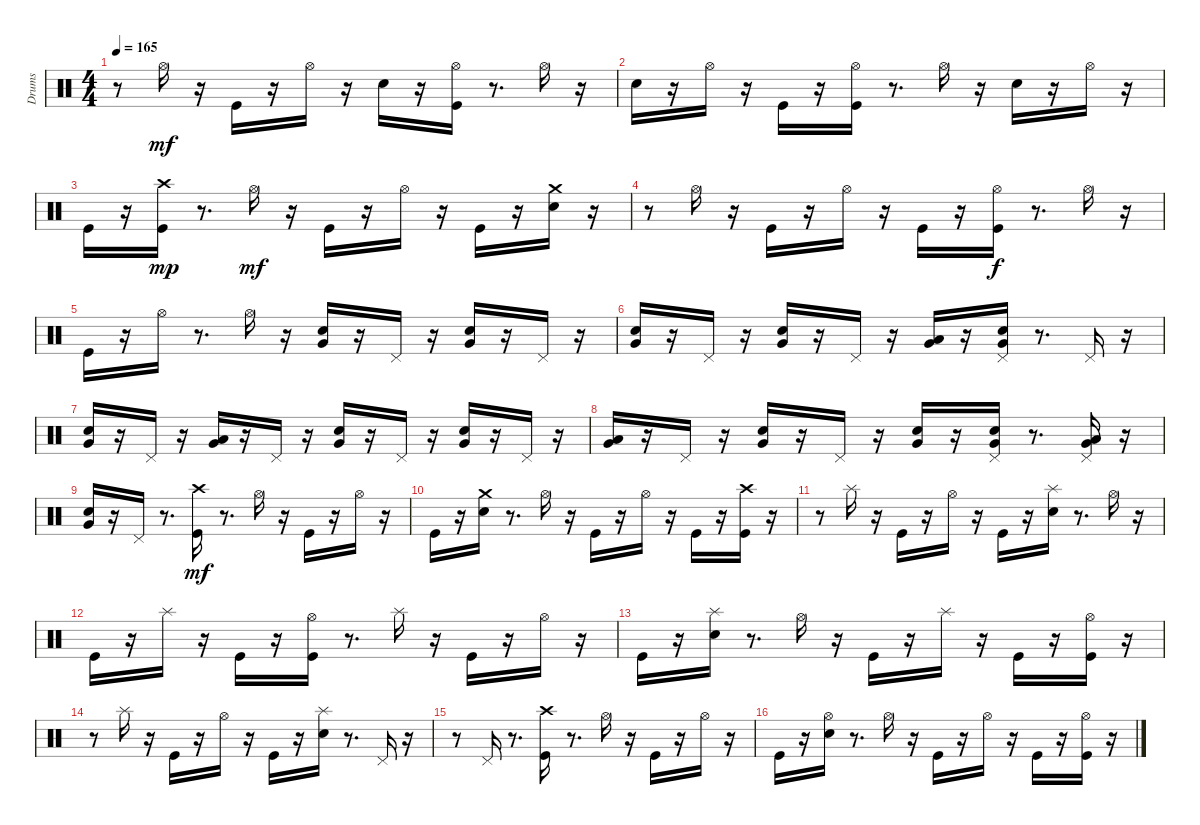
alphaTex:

\track ("Drums" "Drums") {instrument percussion}
\staff {score}
\articulation defaults
\ts (4 4)
\tempo 165
\clef neutral
\ks c
r.8{dy mf} "Hi-Hat (open)".16 r.16 "Kick (hit)".16 r.16 "Hi-Hat (open)".16 r.16 "Electric Snare (hit)".16 r.16 ("Kick (hit)" "Hi-Hat (open)").16 r.8{d} "Hi-Hat (open)".16 r.16 |
"Electric Snare (hit)".16 r.16 "Hi-Hat (open)".16 r.16 "Kick (hit)".16 r.16 ("Hi-Hat (open)" "Kick (hit)").16 r.8{d} "Hi-Hat (open)".16 r.16 "Electric Snare (hit)".16 r.16 "Hi-Hat (open)".16 r.16 |
"Kick (hit)".16 r.16 ("Kick (hit)" "Crash high (hit)").16{dy mp} r.8{d} "Hi-Hat (open)".16{dy mf} r.16 "Kick (hit)".16 r.16 "Hi-Hat (open)".16 r.16 "Kick (hit)".16 r.16 ("Crash medium (hit)" "Electric Snare (hit)").16 r.16 |
r.8 "Hi-Hat (open)".16 r.16 "Kick (hit)".16 r.16 "Hi-Hat (open)".16 r.16 "Kick (hit)".16 r.16 ("Kick (hit)" "Hi-Hat (open)").16{dy f} r.8{d} "Hi-Hat (open)".16 r.16 |
"Kick (hit)".16 r.16 "Hi-Hat (open)".16 r.8{d} "Hi-Hat (open)".16 r.16 ("Electric Snare (hit)" "Very Low Tom (hit)").16 r.16 "Pedal Hi-Hat (hit)".16 r.16 ("Electric Snare (hit)" "Very Low Tom (hit)").16 r.16 "Pedal Hi-Hat (hit)".16 r.16 |
("Electric Snare (hit)" "Very Low Tom (hit)").16 r.16 "Pedal Hi-Hat (hit)".16 r.16 ("Electric Snare (hit)" "Very Low Tom (hit)").16 r.16 "Pedal Hi-Hat (hit)".16 r.16 ("Low Tom (hit)" "Very Low Tom (hit)").16 r.16 ("Electric Snare (hit)" "Very Low Tom (hit)" "Pedal Hi-Hat (hit)").16 r.8{d} "Pedal Hi-Hat (hit)".16 r.16 |
("Electric Snare (hit)" "Very Low Tom (hit)").16 r.16 "Pedal Hi-Hat (hit)".16 r.16 ("Low Tom (hit)" "Very Low Tom (hit)").16 r.16 "Pedal Hi-Hat (hit)".16 r.16 ("Electric Snare (hit)" "Very Low Tom (hit)").16 r.16 "Pedal Hi-Hat (hit)".16 r.16 ("Electric Snare (hit)" "Very Low Tom (hit)").16 r.16 "Pedal Hi-Hat (hit)".16 r.16 |
("Low Tom (hit)" "Very Low Tom (hit)").16 r.16 "Pedal Hi-Hat (hit)".16 r.16 ("Electric Snare (hit)" "Very Low Tom (hit)").16 r.16 "Pedal Hi-Hat (hit)".16 r.16 ("Electric Snare (hit)" "Very Low Tom (hit)").16 r.16 ("Electric Snare (hit)" "Very Low Tom (hit)" "Pedal Hi-Hat (hit)").16 r.8{d} ("Low Tom (hit)" "Very Low Tom (hit)" "Pedal Hi-Hat (hit)").16 r.16 |
("Electric Snare (hit)" "Very Low Tom (hit)").16 r.16 "Pedal Hi-Hat (hit)".16 r.8{d} ("Kick (hit)" "Crash high (hit)").16{dy mf} r.8{d} "Hi-Hat (open)".16 r.16 "Kick (hit)".16 r.16 "Hi-Hat (open)".16 r.16 |
"Kick (hit)".16 r.16 ("Crash medium (hit)" "Electric Snare (hit)").16 r.8{d} "Hi-Hat (open)".16 r.16 "Kick (hit)".16 r.16 "Hi-Hat (open)".16 r.16 "Kick (hit)".16 r.16 ("Kick (hit)" "Crash high (hit)").16 r.16 |
r.8 "Splash (hit)".16 r.16 "Kick (hit)".16 r.16 "Hi-Hat (open)".16 r.16 "Kick (hit)".16 r.16 ("Splash (hit)" "Electric Snare (hit)").16 r.8{d} "Hi-Hat (open)".16 r.16 |
"Kick (hit)".16 r.16 "Splash (hit)".16 r.16 "Kick (hit)".16 r.16 ("Kick (hit)" "Hi-Hat (open)").16 r.8{d} "Splash (hit)".16 r.16 "Kick (hit)".16 r.16 "Hi-Hat (open)".16 r.16 |
"Kick (hit)".16 r.16 ("Electric Snare (hit)" "Splash (hit)").16 r.8{d} "Hi-Hat (open)".16 r.16 "Kick (hit)".16 r.16 "Splash (hit)".16 r.16 "Kick (hit)".16 r.16 ("Kick (hit)" "Hi-Hat (open)").16 r.16 |
r.8 "Splash (hit)".16 r.16 "Kick (hit)".16 r.16 "Hi-Hat (open)".16 r.16 "Kick (hit)".16 r.16 ("Splash (hit)" "Electric Snare (hit)").16 r.8{d} "Pedal Hi-Hat (hit)".16 r.16 |
r.8 "Pedal Hi-Hat (hit)".16 r.8{d} ("Kick (hit)" "Crash high (hit)").16 r.8{d} "Hi-Hat (open)".16 r.16 "Kick (hit)".16 r.16 "Hi-Hat (open)".16 r.16 |
"Kick (hit)".16 r.16 ("Hi-Hat (open)" "Electric Snare (hit)").16 r.8{d} "Hi-Hat (open)".16 r.16 "Kick (hit)".16 r.16 "Hi-Hat (open)".16 r.16 "Kick (hit)".16 r.16 ("Kick (hit)" "Hi-Hat (open)").16 r.16
